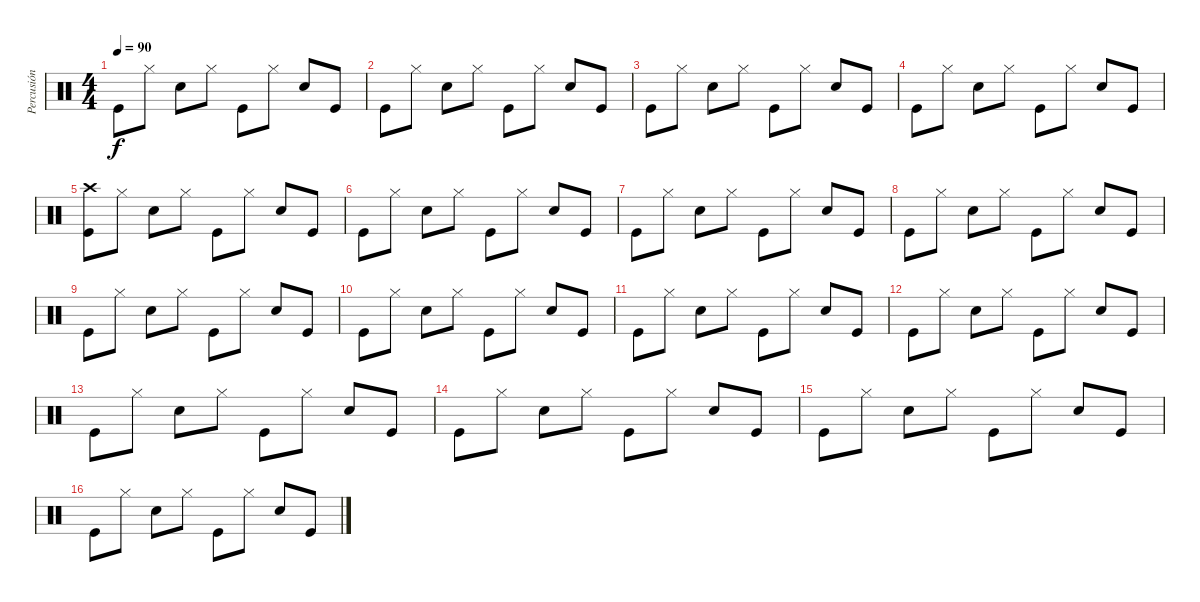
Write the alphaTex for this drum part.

\track ("Percusión" "Percusión") {instrument percussion}
\staff {score}
\articulation defaults
\ts (4 4)
\tempo 90
\clef neutral
\ks c "Kick (hit)".8{dy f} "Hi-Hat (closed)".8 "Snare (hit) 2".8 "Hi-Hat (closed)".8 "Kick (hit)".8 "Hi-Hat (closed)".8 "Snare (hit) 2".8 "Kick (hit)".8
|
"Kick (hit)".8 "Hi-Hat (closed)".8 "Snare (hit) 2".8 "Hi-Hat (closed)".8 "Kick (hit)".8 "Hi-Hat (closed)".8 "Snare (hit) 2".8 "Kick (hit)".8 |
"Kick (hit)".8 "Hi-Hat (closed)".8 "Snare (hit) 2".8 "Hi-Hat (closed)".8 "Kick (hit)".8 "Hi-Hat (closed)".8 "Snare (hit) 2".8 "Kick (hit)".8 |
"Kick (hit)".8 "Hi-Hat (closed)".8 "Snare (hit) 2".8 "Hi-Hat (closed)".8 "Kick (hit)".8 "Hi-Hat (closed)".8 "Snare (hit) 2".8 "Kick (hit)".8 |
("Crash high (hit)" "Kick (hit)").8 "Hi-Hat (closed)".8 "Snare (hit) 2".8 "Hi-Hat (closed)".8 "Kick (hit)".8 "Hi-Hat (closed)".8 "Snare (hit) 2".8 "Kick (hit)".8 |
"Kick (hit)".8 "Hi-Hat (closed)".8 "Snare (hit) 2".8 "Hi-Hat (closed)".8 "Kick (hit)".8 "Hi-Hat (closed)".8 "Snare (hit) 2".8 "Kick (hit)".8 |
"Kick (hit)".8 "Hi-Hat (closed)".8 "Snare (hit) 2".8 "Hi-Hat (closed)".8 "Kick (hit)".8 "Hi-Hat (closed)".8 "Snare (hit) 2".8 "Kick (hit)".8 |
"Kick (hit)".8 "Hi-Hat (closed)".8 "Snare (hit) 2".8 "Hi-Hat (closed)".8 "Kick (hit)".8 "Hi-Hat (closed)".8 "Snare (hit) 2".8 "Kick (hit)".8 |
"Kick (hit)".8 "Hi-Hat (closed)".8 "Snare (hit) 2".8 "Hi-Hat (closed)".8 "Kick (hit)".8 "Hi-Hat (closed)".8 "Snare (hit) 2".8 "Kick (hit)".8 |
"Kick (hit)".8 "Hi-Hat (closed)".8 "Snare (hit) 2".8 "Hi-Hat (closed)".8 "Kick (hit)".8 "Hi-Hat (closed)".8 "Snare (hit) 2".8 "Kick (hit)".8 |
"Kick (hit)".8 "Hi-Hat (closed)".8 "Snare (hit) 2".8 "Hi-Hat (closed)".8 "Kick (hit)".8 "Hi-Hat (closed)".8 "Snare (hit) 2".8 "Kick (hit)".8 |
"Kick (hit)".8 "Hi-Hat (closed)".8 "Snare (hit) 2".8 "Hi-Hat (closed)".8 "Kick (hit)".8 "Hi-Hat (closed)".8 "Snare (hit) 2".8 "Kick (hit)".8 |
"Kick (hit)".8 "Hi-Hat (closed)".8 "Snare (hit) 2".8 "Hi-Hat (closed)".8 "Kick (hit)".8 "Hi-Hat (closed)".8 "Snare (hit) 2".8 "Kick (hit)".8 |
"Kick (hit)".8 "Hi-Hat (closed)".8 "Snare (hit) 2".8 "Hi-Hat (closed)".8 "Kick (hit)".8 "Hi-Hat (closed)".8 "Snare (hit) 2".8 "Kick (hit)".8 |
"Kick (hit)".8 "Hi-Hat (closed)".8 "Snare (hit) 2".8 "Hi-Hat (closed)".8 "Kick (hit)".8 "Hi-Hat (closed)".8 "Snare (hit) 2".8 "Kick (hit)".8 |
"Kick (hit)".8 "Hi-Hat (closed)".8 "Snare (hit) 2".8 "Hi-Hat (closed)".8 "Kick (hit)".8 "Hi-Hat (closed)".8 "Snare (hit) 2".8 "Kick (hit)".8
